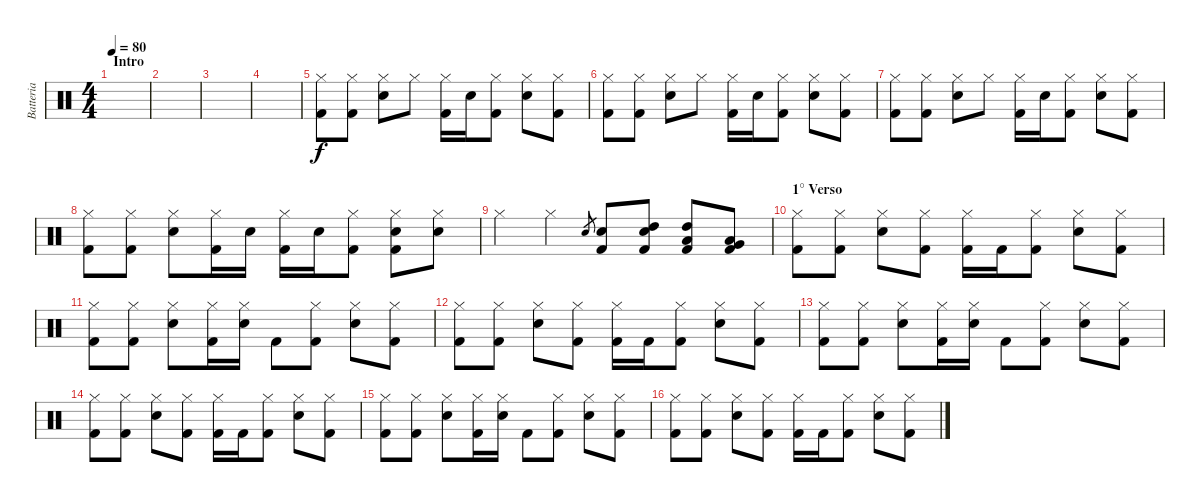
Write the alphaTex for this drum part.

\track ("Batteria" "Batteria") {instrument percussion}
\staff {score}
\articulation defaults
\ts (4 4)
\section ("" "Intro")
\tempo 80
\clef neutral
\ks c
|
|
|
|
("Hi-Hat (closed)" "Kick (hit) 2").8 ("Hi-Hat (closed)" "Kick (hit) 2").8 ("Hi-Hat (closed)" "Electric Snare (hit)").8 "Hi-Hat (closed)".8 ("Hi-Hat (closed)" "Kick (hit) 2").16 "Electric Snare (hit)".16 ("Hi-Hat (closed)" "Kick (hit) 2").8 ("Hi-Hat (closed)" "Electric Snare (hit)").8 ("Hi-Hat (closed)" "Kick (hit) 2").8 |
("Hi-Hat (closed)" "Kick (hit) 2").8 ("Hi-Hat (closed)" "Kick (hit) 2").8 ("Hi-Hat (closed)" "Electric Snare (hit)").8 "Hi-Hat (closed)".8 ("Hi-Hat (closed)" "Kick (hit) 2").16 "Electric Snare (hit)".16 ("Hi-Hat (closed)" "Kick (hit) 2").8 ("Hi-Hat (closed)" "Electric Snare (hit)").8 ("Hi-Hat (closed)" "Kick (hit) 2").8 |
("Hi-Hat (closed)" "Kick (hit) 2").8 ("Hi-Hat (closed)" "Kick (hit) 2").8 ("Hi-Hat (closed)" "Electric Snare (hit)").8 "Hi-Hat (closed)".8 ("Hi-Hat (closed)" "Kick (hit) 2").16 "Electric Snare (hit)".16 ("Hi-Hat (closed)" "Kick (hit) 2").8 ("Hi-Hat (closed)" "Electric Snare (hit)").8 ("Hi-Hat (closed)" "Kick (hit) 2").8 |
("Hi-Hat (closed)" "Kick (hit) 2").8 ("Hi-Hat (closed)" "Kick (hit) 2").8 ("Hi-Hat (closed)" "Electric Snare (hit)").8 ("Hi-Hat (closed)" "Kick (hit) 2").16 "Electric Snare (hit)".16 ("Hi-Hat (closed)" "Kick (hit) 2").16 "Electric Snare (hit)".16 ("Hi-Hat (closed)" "Kick (hit) 2").8 ("Hi-Hat (closed)" "Electric Snare (hit)" "Kick (hit) 2").8 ("Hi-Hat (closed)" "Electric Snare (hit)").8 |
"Hi-Hat (closed)".4 "Hi-Hat (closed)".4 "Electric Snare (hit)".8{gr} ("Electric Snare (hit)" "Kick (hit) 2").8 ("Electric Snare (hit)" "High Tom (hit)" "Kick (hit) 2").8 ("High Tom (hit)" "Low Tom (hit)" "Kick (hit) 2").8 ("Low Tom (hit)" "Very Low Tom (hit)" "Kick (hit) 2").8 |
\section ("" "1° Verso")
("Hi-Hat (closed)" "Kick (hit) 2").8 ("Hi-Hat (closed)" "Kick (hit) 2").8 ("Hi-Hat (closed)" "Electric Snare (hit)").8 ("Hi-Hat (closed)" "Kick (hit) 2").8 ("Hi-Hat (closed)" "Kick (hit) 2").16 "Kick (hit) 2".16 ("Hi-Hat (closed)" "Kick (hit) 2").8 ("Hi-Hat (closed)" "Snare (hit) 2").8 ("Hi-Hat (closed)" "Kick (hit) 2").8 |
("Hi-Hat (closed)" "Kick (hit) 2").8 ("Hi-Hat (closed)" "Kick (hit) 2").8 ("Hi-Hat (closed)" "Electric Snare (hit)").8 ("Hi-Hat (closed)" "Kick (hit) 2").16 ("Hi-Hat (closed)" "Electric Snare (hit)").16 "Kick (hit) 2".8 ("Hi-Hat (closed)" "Kick (hit) 2").8 ("Hi-Hat (closed)" "Electric Snare (hit)").8 ("Hi-Hat (closed)" "Kick (hit) 2").8 |
("Hi-Hat (closed)" "Kick (hit) 2").8 ("Hi-Hat (closed)" "Kick (hit) 2").8 ("Hi-Hat (closed)" "Electric Snare (hit)").8 ("Hi-Hat (closed)" "Kick (hit) 2").8 ("Hi-Hat (closed)" "Kick (hit) 2").16 "Kick (hit) 2".16 ("Hi-Hat (closed)" "Kick (hit) 2").8 ("Hi-Hat (closed)" "Electric Snare (hit)").8 ("Hi-Hat (closed)" "Kick (hit) 2").8 |
("Hi-Hat (closed)" "Kick (hit) 2").8 ("Hi-Hat (closed)" "Kick (hit) 2").8 ("Hi-Hat (closed)" "Electric Snare (hit)").8 ("Hi-Hat (closed)" "Kick (hit) 2").16 ("Hi-Hat (closed)" "Electric Snare (hit)").16 "Kick (hit) 2".8 ("Hi-Hat (closed)" "Kick (hit) 2").8 ("Hi-Hat (closed)" "Electric Snare (hit)").8 ("Hi-Hat (closed)" "Kick (hit) 2").8 |
("Hi-Hat (closed)" "Kick (hit) 2").8 ("Hi-Hat (closed)" "Kick (hit) 2").8 ("Hi-Hat (closed)" "Electric Snare (hit)").8 ("Hi-Hat (closed)" "Kick (hit) 2").8 ("Hi-Hat (closed)" "Kick (hit) 2").16 "Kick (hit) 2".16 ("Hi-Hat (closed)" "Kick (hit) 2").8 ("Hi-Hat (closed)" "Electric Snare (hit)").8 ("Hi-Hat (closed)" "Kick (hit) 2").8 |
("Hi-Hat (closed)" "Kick (hit) 2").8 ("Hi-Hat (closed)" "Kick (hit) 2").8 ("Hi-Hat (closed)" "Electric Snare (hit)").8 ("Hi-Hat (closed)" "Kick (hit) 2").16 ("Hi-Hat (closed)" "Electric Snare (hit)").16 "Kick (hit) 2".8 ("Hi-Hat (closed)" "Kick (hit) 2").8 ("Hi-Hat (closed)" "Electric Snare (hit)").8 ("Hi-Hat (closed)" "Kick (hit) 2").8 |
("Hi-Hat (closed)" "Kick (hit) 2").8 ("Hi-Hat (closed)" "Kick (hit) 2").8 ("Hi-Hat (closed)" "Electric Snare (hit)").8 ("Hi-Hat (closed)" "Kick (hit) 2").8 ("Hi-Hat (closed)" "Kick (hit) 2").16 "Kick (hit) 2".16 ("Hi-Hat (closed)" "Kick (hit) 2").8 ("Hi-Hat (closed)" "Electric Snare (hit)").8 ("Hi-Hat (closed)" "Kick (hit) 2").8
